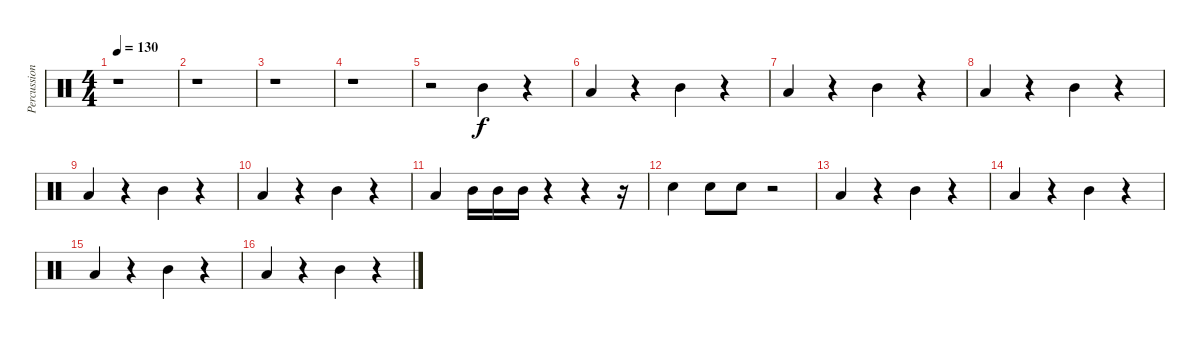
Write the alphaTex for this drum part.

\track ("Percussions" "Percussion") {instrument percussion}
\staff {score}
\articulation defaults
\ts (4 4)
\tempo 130
\clef neutral
\ks c
r.1{dy f} |
r.1 |
r.1 |
r.1 |
r.2 "Mid Tom (hit)".4 r.4 |
"Low Tom (hit)".4 r.4 "Mid Tom (hit)".4 r.4 |
"Low Tom (hit)".4 r.4 "Mid Tom (hit)".4 r.4 |
"Low Tom (hit)".4 r.4 "Mid Tom (hit)".4 r.4 |
"Low Tom (hit)".4 r.4 "Mid Tom (hit)".4 r.4 |
"Low Tom (hit)".4 r.4 "Mid Tom (hit)".4 r.4 |
"Low Tom (hit)".4 "Mid Tom (hit)".16 "Mid Tom (hit)".16 "Mid Tom (hit)".16 r.4 r.4 r.16 |
"Electric Snare (hit)".4 "Electric Snare (hit)".8 "Electric Snare (hit)".8 r.2 |
"Low Tom (hit)".4 r.4 "Mid Tom (hit)".4 r.4 |
"Low Tom (hit)".4 r.4 "Mid Tom (hit)".4 r.4 |
"Low Tom (hit)".4 r.4 "Mid Tom (hit)".4 r.4 |
"Low Tom (hit)".4 r.4 "Mid Tom (hit)".4 r.4
